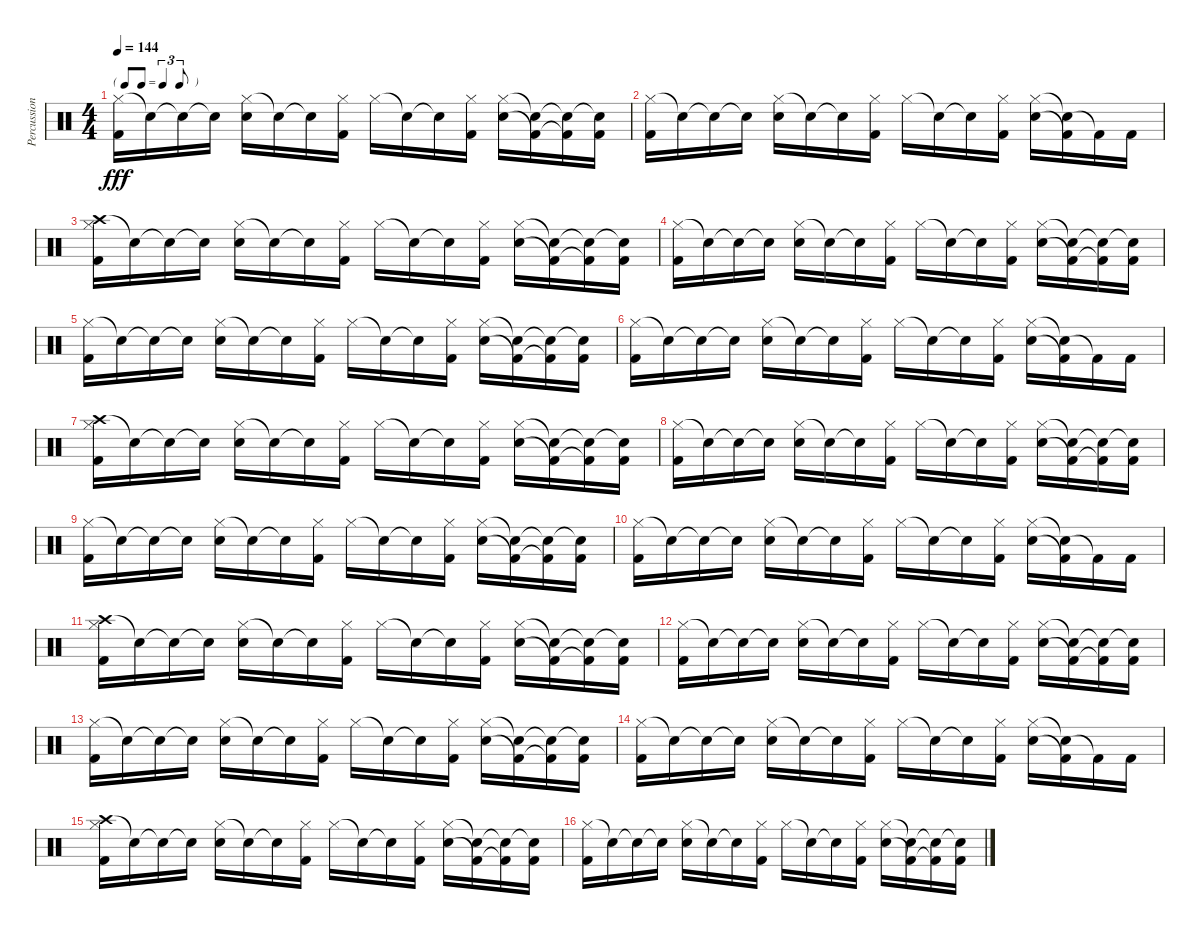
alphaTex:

\track ("Percussion" "Percussion") {instrument percussion}
\staff {score}
\articulation defaults
\ts (4 4)
\tf triplet8th
\tempo 144
\clef neutral
\ks c
("Hi-Hat (closed)" "Kick (hit) 2").16{dy fff} "Snare (hit)"{t}.16 "Snare (hit)"{t}.16 "Snare (hit)"{t}.16 ("Hi-Hat (closed)" "Electric Snare (hit)").16 "Snare (hit)"{t}.16 "Snare (hit)"{t}.16 ("Hi-Hat (closed)" "Kick (hit) 2").16 "Hi-Hat (closed)".16 "Snare (hit)"{t}.16 "Snare (hit)"{t}.16 ("Hi-Hat (closed)" "Kick (hit) 2").16 ("Hi-Hat (closed)" "Electric Snare (hit)").16 ("Snare (hit)"{t} "Kick (hit) 2"{t}).16 ("Snare (hit)"{t} "Kick (hit) 2"{t}).16 ("Snare (hit)"{t} "Kick (hit) 2").16 |
("Hi-Hat (closed)" "Kick (hit) 2").16 "Snare (hit)"{t}.16 "Snare (hit)"{t}.16 "Snare (hit)"{t}.16 ("Hi-Hat (closed)" "Electric Snare (hit)").16 "Snare (hit)"{t}.16 "Snare (hit)"{t}.16 ("Hi-Hat (closed)" "Kick (hit) 2").16 "Hi-Hat (closed)".16 "Snare (hit)"{t}.16 "Snare (hit)"{t}.16 ("Hi-Hat (closed)" "Kick (hit) 2").16 ("Hi-Hat (closed)" "Electric Snare (hit)").16 ("Snare (hit)"{t} "Kick (hit) 2"{t}).16 "Kick (hit) 2"{t}.16 "Kick (hit) 2".16 |
("Crash high (hit)" "Hi-Hat (closed)" "Kick (hit) 2").16 "Snare (hit)"{t}.16 "Snare (hit)"{t}.16 "Snare (hit)"{t}.16 ("Hi-Hat (closed)" "Electric Snare (hit)").16 "Snare (hit)"{t}.16 "Snare (hit)"{t}.16 ("Hi-Hat (closed)" "Kick (hit) 2").16 "Hi-Hat (closed)".16 "Snare (hit)"{t}.16 "Snare (hit)"{t}.16 ("Hi-Hat (closed)" "Kick (hit) 2").16 ("Hi-Hat (closed)" "Electric Snare (hit)").16 ("Snare (hit)"{t} "Kick (hit) 2"{t}).16 ("Snare (hit)"{t} "Kick (hit) 2"{t}).16 ("Snare (hit)"{t} "Kick (hit) 2").16 |
("Hi-Hat (closed)" "Kick (hit) 2").16 "Snare (hit)"{t}.16 "Snare (hit)"{t}.16 "Snare (hit)"{t}.16 ("Hi-Hat (closed)" "Electric Snare (hit)").16 "Snare (hit)"{t}.16 "Snare (hit)"{t}.16 ("Hi-Hat (closed)" "Kick (hit) 2").16 "Hi-Hat (closed)".16 "Snare (hit)"{t}.16 "Snare (hit)"{t}.16 ("Hi-Hat (closed)" "Kick (hit) 2").16 ("Hi-Hat (closed)" "Electric Snare (hit)").16 ("Snare (hit)"{t} "Kick (hit) 2"{t}).16 ("Snare (hit)"{t} "Kick (hit) 2"{t}).16 ("Snare (hit)"{t} "Kick (hit) 2").16 |
("Hi-Hat (closed)" "Kick (hit) 2").16 "Snare (hit)"{t}.16 "Snare (hit)"{t}.16 "Snare (hit)"{t}.16 ("Hi-Hat (closed)" "Electric Snare (hit)").16 "Snare (hit)"{t}.16 "Snare (hit)"{t}.16 ("Hi-Hat (closed)" "Kick (hit) 2").16 "Hi-Hat (closed)".16 "Snare (hit)"{t}.16 "Snare (hit)"{t}.16 ("Hi-Hat (closed)" "Kick (hit) 2").16 ("Hi-Hat (closed)" "Electric Snare (hit)").16 ("Snare (hit)"{t} "Kick (hit) 2"{t}).16 ("Snare (hit)"{t} "Kick (hit) 2"{t}).16 ("Snare (hit)"{t} "Kick (hit) 2").16 |
("Hi-Hat (closed)" "Kick (hit) 2").16 "Snare (hit)"{t}.16 "Snare (hit)"{t}.16 "Snare (hit)"{t}.16 ("Hi-Hat (closed)" "Electric Snare (hit)").16 "Snare (hit)"{t}.16 "Snare (hit)"{t}.16 ("Hi-Hat (closed)" "Kick (hit) 2").16 "Hi-Hat (closed)".16 "Snare (hit)"{t}.16 "Snare (hit)"{t}.16 ("Hi-Hat (closed)" "Kick (hit) 2").16 ("Hi-Hat (closed)" "Electric Snare (hit)").16 ("Snare (hit)"{t} "Kick (hit) 2"{t}).16 "Kick (hit) 2"{t}.16 "Kick (hit) 2".16 |
("Crash high (hit)" "Hi-Hat (closed)" "Kick (hit) 2").16 "Snare (hit)"{t}.16 "Snare (hit)"{t}.16 "Snare (hit)"{t}.16 ("Hi-Hat (closed)" "Electric Snare (hit)").16 "Snare (hit)"{t}.16 "Snare (hit)"{t}.16 ("Hi-Hat (closed)" "Kick (hit) 2").16 "Hi-Hat (closed)".16 "Snare (hit)"{t}.16 "Snare (hit)"{t}.16 ("Hi-Hat (closed)" "Kick (hit) 2").16 ("Hi-Hat (closed)" "Electric Snare (hit)").16 ("Snare (hit)"{t} "Kick (hit) 2"{t}).16 ("Snare (hit)"{t} "Kick (hit) 2"{t}).16 ("Snare (hit)"{t} "Kick (hit) 2").16 |
("Hi-Hat (closed)" "Kick (hit) 2").16 "Snare (hit)"{t}.16 "Snare (hit)"{t}.16 "Snare (hit)"{t}.16 ("Hi-Hat (closed)" "Electric Snare (hit)").16 "Snare (hit)"{t}.16 "Snare (hit)"{t}.16 ("Hi-Hat (closed)" "Kick (hit) 2").16 "Hi-Hat (closed)".16 "Snare (hit)"{t}.16 "Snare (hit)"{t}.16 ("Hi-Hat (closed)" "Kick (hit) 2").16 ("Hi-Hat (closed)" "Electric Snare (hit)").16 ("Snare (hit)"{t} "Kick (hit) 2"{t}).16 ("Snare (hit)"{t} "Kick (hit) 2"{t}).16 ("Snare (hit)"{t} "Kick (hit) 2").16 |
("Hi-Hat (closed)" "Kick (hit) 2").16 "Snare (hit)"{t}.16 "Snare (hit)"{t}.16 "Snare (hit)"{t}.16 ("Hi-Hat (closed)" "Electric Snare (hit)").16 "Snare (hit)"{t}.16 "Snare (hit)"{t}.16 ("Hi-Hat (closed)" "Kick (hit) 2").16 "Hi-Hat (closed)".16 "Snare (hit)"{t}.16 "Snare (hit)"{t}.16 ("Hi-Hat (closed)" "Kick (hit) 2").16 ("Hi-Hat (closed)" "Electric Snare (hit)").16 ("Snare (hit)"{t} "Kick (hit) 2"{t}).16 ("Snare (hit)"{t} "Kick (hit) 2"{t}).16 ("Snare (hit)"{t} "Kick (hit) 2").16 |
("Hi-Hat (closed)" "Kick (hit) 2").16 "Snare (hit)"{t}.16 "Snare (hit)"{t}.16 "Snare (hit)"{t}.16 ("Hi-Hat (closed)" "Electric Snare (hit)").16 "Snare (hit)"{t}.16 "Snare (hit)"{t}.16 ("Hi-Hat (closed)" "Kick (hit) 2").16 "Hi-Hat (closed)".16 "Snare (hit)"{t}.16 "Snare (hit)"{t}.16 ("Hi-Hat (closed)" "Kick (hit) 2").16 ("Hi-Hat (closed)" "Electric Snare (hit)").16 ("Snare (hit)"{t} "Kick (hit) 2"{t}).16 "Kick (hit) 2"{t}.16 "Kick (hit) 2".16 |
("Crash high (hit)" "Hi-Hat (closed)" "Kick (hit) 2").16 "Snare (hit)"{t}.16 "Snare (hit)"{t}.16 "Snare (hit)"{t}.16 ("Hi-Hat (closed)" "Electric Snare (hit)").16 "Snare (hit)"{t}.16 "Snare (hit)"{t}.16 ("Hi-Hat (closed)" "Kick (hit) 2").16 "Hi-Hat (closed)".16 "Snare (hit)"{t}.16 "Snare (hit)"{t}.16 ("Hi-Hat (closed)" "Kick (hit) 2").16 ("Hi-Hat (closed)" "Electric Snare (hit)").16 ("Snare (hit)"{t} "Kick (hit) 2"{t}).16 ("Snare (hit)"{t} "Kick (hit) 2"{t}).16 ("Snare (hit)"{t} "Kick (hit) 2").16 |
("Hi-Hat (closed)" "Kick (hit) 2").16 "Snare (hit)"{t}.16 "Snare (hit)"{t}.16 "Snare (hit)"{t}.16 ("Hi-Hat (closed)" "Electric Snare (hit)").16 "Snare (hit)"{t}.16 "Snare (hit)"{t}.16 ("Hi-Hat (closed)" "Kick (hit) 2").16 "Hi-Hat (closed)".16 "Snare (hit)"{t}.16 "Snare (hit)"{t}.16 ("Hi-Hat (closed)" "Kick (hit) 2").16 ("Hi-Hat (closed)" "Electric Snare (hit)").16 ("Snare (hit)"{t} "Kick (hit) 2"{t}).16 ("Snare (hit)"{t} "Kick (hit) 2"{t}).16 ("Snare (hit)"{t} "Kick (hit) 2").16 |
("Hi-Hat (closed)" "Kick (hit) 2").16 "Snare (hit)"{t}.16 "Snare (hit)"{t}.16 "Snare (hit)"{t}.16 ("Hi-Hat (closed)" "Electric Snare (hit)").16 "Snare (hit)"{t}.16 "Snare (hit)"{t}.16 ("Hi-Hat (closed)" "Kick (hit) 2").16 "Hi-Hat (closed)".16 "Snare (hit)"{t}.16 "Snare (hit)"{t}.16 ("Hi-Hat (closed)" "Kick (hit) 2").16 ("Hi-Hat (closed)" "Electric Snare (hit)").16 ("Snare (hit)"{t} "Kick (hit) 2"{t}).16 ("Snare (hit)"{t} "Kick (hit) 2"{t}).16 ("Snare (hit)"{t} "Kick (hit) 2").16 |
("Hi-Hat (closed)" "Kick (hit) 2").16 "Snare (hit)"{t}.16 "Snare (hit)"{t}.16 "Snare (hit)"{t}.16 ("Hi-Hat (closed)" "Electric Snare (hit)").16 "Snare (hit)"{t}.16 "Snare (hit)"{t}.16 ("Hi-Hat (closed)" "Kick (hit) 2").16 "Hi-Hat (closed)".16 "Snare (hit)"{t}.16 "Snare (hit)"{t}.16 ("Hi-Hat (closed)" "Kick (hit) 2").16 ("Hi-Hat (closed)" "Electric Snare (hit)").16 ("Snare (hit)"{t} "Kick (hit) 2"{t}).16 "Kick (hit) 2"{t}.16 "Kick (hit) 2".16 |
("Crash high (hit)" "Hi-Hat (closed)" "Kick (hit) 2").16 "Snare (hit)"{t}.16 "Snare (hit)"{t}.16 "Snare (hit)"{t}.16 ("Hi-Hat (closed)" "Electric Snare (hit)").16 "Snare (hit)"{t}.16 "Snare (hit)"{t}.16 ("Hi-Hat (closed)" "Kick (hit) 2").16 "Hi-Hat (closed)".16 "Snare (hit)"{t}.16 "Snare (hit)"{t}.16 ("Hi-Hat (closed)" "Kick (hit) 2").16 ("Hi-Hat (closed)" "Electric Snare (hit)").16 ("Snare (hit)"{t} "Kick (hit) 2"{t}).16 ("Snare (hit)"{t} "Kick (hit) 2"{t}).16 ("Snare (hit)"{t} "Kick (hit) 2").16 |
("Hi-Hat (closed)" "Kick (hit) 2").16 "Snare (hit)"{t}.16 "Snare (hit)"{t}.16 "Snare (hit)"{t}.16 ("Hi-Hat (closed)" "Electric Snare (hit)").16 "Snare (hit)"{t}.16 "Snare (hit)"{t}.16 ("Hi-Hat (closed)" "Kick (hit) 2").16 "Hi-Hat (closed)".16 "Snare (hit)"{t}.16 "Snare (hit)"{t}.16 ("Hi-Hat (closed)" "Kick (hit) 2").16 ("Hi-Hat (closed)" "Electric Snare (hit)").16 ("Snare (hit)"{t} "Kick (hit) 2"{t}).16 ("Snare (hit)"{t} "Kick (hit) 2"{t}).16 ("Snare (hit)"{t} "Kick (hit) 2").16
